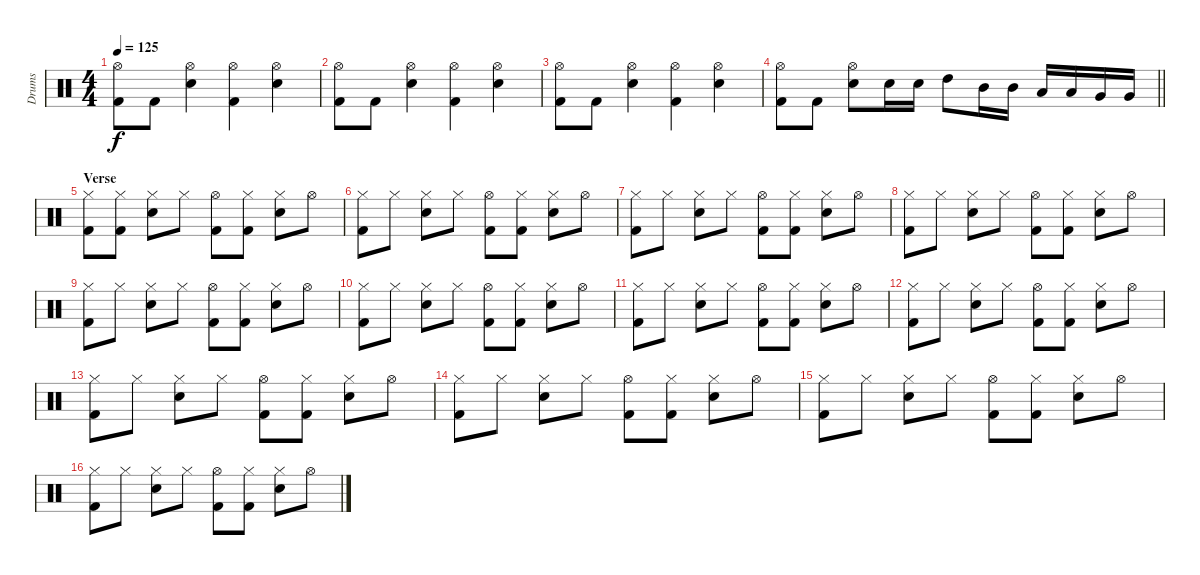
\track ("Drums" "Drums") {instrument percussion}
\staff {score}
\articulation defaults
\ts (4 4)
\tempo 125
\clef neutral
\ks c
("Hi-Hat (open)" "Kick (hit) 2").8{dy f} "Kick (hit) 2".8 ("Hi-Hat (open)" "Electric Snare (hit)").4 ("Hi-Hat (open)" "Kick (hit) 2").4 ("Hi-Hat (open)" "Electric Snare (hit)").4 |
("Hi-Hat (open)" "Kick (hit) 2").8 "Kick (hit) 2".8 ("Hi-Hat (open)" "Electric Snare (hit)").4 ("Hi-Hat (open)" "Kick (hit) 2").4 ("Hi-Hat (open)" "Electric Snare (hit)").4 |
("Hi-Hat (open)" "Kick (hit) 2").8 "Kick (hit) 2".8 ("Hi-Hat (open)" "Electric Snare (hit)").4 ("Hi-Hat (open)" "Kick (hit) 2").4 ("Hi-Hat (open)" "Electric Snare (hit)").4 |
\barLineRight lightlight
("Hi-Hat (open)" "Kick (hit) 2").8 "Kick (hit) 2".8 ("Hi-Hat (open)" "Electric Snare (hit)").8 "Electric Snare (hit)".16 "Electric Snare (hit)".16 "High Tom (hit)".8 "Mid Tom (hit)".16 "Mid Tom (hit)".16 "Low Tom (hit)".16 "Low Tom (hit)".16 "Very Low Tom (hit)".16 "Very Low Tom (hit)".16 |
\section ("" "Verse")
("Hi-Hat (closed)" "Kick (hit) 2").8 ("Hi-Hat (closed)" "Kick (hit) 2").8 ("Hi-Hat (closed)" "Electric Snare (hit)").8 "Hi-Hat (closed)".8 ("Hi-Hat (open)" "Kick (hit) 2").8 ("Hi-Hat (closed)" "Kick (hit) 2").8 ("Hi-Hat (closed)" "Electric Snare (hit)").8 "Hi-Hat (open)".8 |
("Hi-Hat (closed)" "Kick (hit) 2").8 "Hi-Hat (closed)".8 ("Hi-Hat (closed)" "Electric Snare (hit)").8 "Hi-Hat (closed)".8 ("Hi-Hat (open)" "Kick (hit) 2").8 ("Hi-Hat (closed)" "Kick (hit) 2").8 ("Hi-Hat (closed)" "Electric Snare (hit)").8 "Hi-Hat (open)".8 |
("Hi-Hat (closed)" "Kick (hit) 2").8 "Hi-Hat (closed)".8 ("Hi-Hat (closed)" "Electric Snare (hit)").8 "Hi-Hat (closed)".8 ("Hi-Hat (open)" "Kick (hit) 2").8 ("Hi-Hat (closed)" "Kick (hit) 2").8 ("Hi-Hat (closed)" "Electric Snare (hit)").8 "Hi-Hat (open)".8 |
("Hi-Hat (closed)" "Kick (hit) 2").8 "Hi-Hat (closed)".8 ("Hi-Hat (closed)" "Electric Snare (hit)").8 "Hi-Hat (closed)".8 ("Hi-Hat (open)" "Kick (hit) 2").8 ("Hi-Hat (closed)" "Kick (hit) 2").8 ("Hi-Hat (closed)" "Electric Snare (hit)").8 "Hi-Hat (open)".8 |
("Hi-Hat (closed)" "Kick (hit) 2").8 "Hi-Hat (closed)".8 ("Hi-Hat (closed)" "Electric Snare (hit)").8 "Hi-Hat (closed)".8 ("Hi-Hat (open)" "Kick (hit) 2").8 ("Hi-Hat (closed)" "Kick (hit) 2").8 ("Hi-Hat (closed)" "Electric Snare (hit)").8 "Hi-Hat (open)".8 |
("Hi-Hat (closed)" "Kick (hit) 2").8 "Hi-Hat (closed)".8 ("Hi-Hat (closed)" "Electric Snare (hit)").8 "Hi-Hat (closed)".8 ("Hi-Hat (open)" "Kick (hit) 2").8 ("Hi-Hat (closed)" "Kick (hit) 2").8 ("Hi-Hat (closed)" "Electric Snare (hit)").8 "Hi-Hat (open)".8 |
("Hi-Hat (closed)" "Kick (hit) 2").8 "Hi-Hat (closed)".8 ("Hi-Hat (closed)" "Electric Snare (hit)").8 "Hi-Hat (closed)".8 ("Hi-Hat (open)" "Kick (hit) 2").8 ("Hi-Hat (closed)" "Kick (hit) 2").8 ("Hi-Hat (closed)" "Electric Snare (hit)").8 "Hi-Hat (open)".8 |
("Hi-Hat (closed)" "Kick (hit) 2").8 "Hi-Hat (closed)".8 ("Hi-Hat (closed)" "Electric Snare (hit)").8 "Hi-Hat (closed)".8 ("Hi-Hat (open)" "Kick (hit) 2").8 ("Hi-Hat (closed)" "Kick (hit) 2").8 ("Hi-Hat (closed)" "Electric Snare (hit)").8 "Hi-Hat (open)".8 |
("Hi-Hat (closed)" "Kick (hit) 2").8 "Hi-Hat (closed)".8 ("Hi-Hat (closed)" "Electric Snare (hit)").8 "Hi-Hat (closed)".8 ("Hi-Hat (open)" "Kick (hit) 2").8 ("Hi-Hat (closed)" "Kick (hit) 2").8 ("Hi-Hat (closed)" "Electric Snare (hit)").8 "Hi-Hat (open)".8 |
("Hi-Hat (closed)" "Kick (hit) 2").8 "Hi-Hat (closed)".8 ("Hi-Hat (closed)" "Electric Snare (hit)").8 "Hi-Hat (closed)".8 ("Hi-Hat (open)" "Kick (hit) 2").8 ("Hi-Hat (closed)" "Kick (hit) 2").8 ("Hi-Hat (closed)" "Electric Snare (hit)").8 "Hi-Hat (open)".8 |
("Hi-Hat (closed)" "Kick (hit) 2").8 "Hi-Hat (closed)".8 ("Hi-Hat (closed)" "Electric Snare (hit)").8 "Hi-Hat (closed)".8 ("Hi-Hat (open)" "Kick (hit) 2").8 ("Hi-Hat (closed)" "Kick (hit) 2").8 ("Hi-Hat (closed)" "Electric Snare (hit)").8 "Hi-Hat (open)".8 |
("Hi-Hat (closed)" "Kick (hit) 2").8 "Hi-Hat (closed)".8 ("Hi-Hat (closed)" "Electric Snare (hit)").8 "Hi-Hat (closed)".8 ("Hi-Hat (open)" "Kick (hit) 2").8 ("Hi-Hat (closed)" "Kick (hit) 2").8 ("Hi-Hat (closed)" "Electric Snare (hit)").8 "Hi-Hat (open)".8
